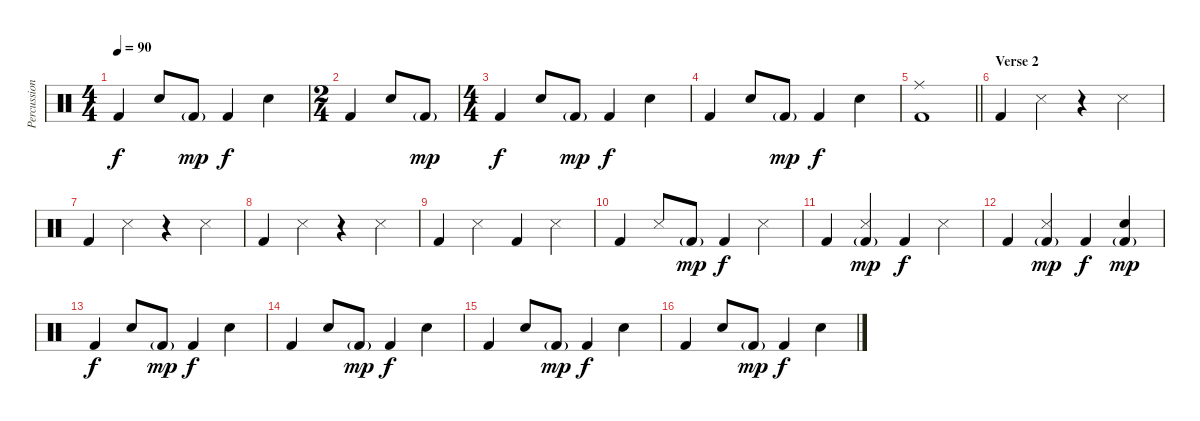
\track ("Percussion" "Percussion") {instrument percussion}
\staff {score}
\articulation defaults
\ts (4 4)
\tempo 90
\clef neutral
\ks c "Kick (hit) 2".4{dy f} "Snare (hit) 2".8 "Kick (hit) 2"{g}.8{dy mp} "Kick (hit) 2".4{dy f} "Snare (hit) 2".4
|
\ts (2 4)
"Kick (hit) 2".4 "Snare (hit) 2".8 "Kick (hit) 2"{g}.8{dy mp} |
\ts (4 4)
"Kick (hit) 2".4{dy f} "Snare (hit) 2".8 "Kick (hit) 2"{g}.8{dy mp} "Kick (hit) 2".4{dy f} "Snare (hit) 2".4 |
"Kick (hit) 2".4 "Snare (hit) 2".8 "Kick (hit) 2"{g}.8{dy mp} "Kick (hit) 2".4{dy f} "Snare (hit) 2".4 |
\barLineRight lightlight
("Ride (middle)" "Kick (hit) 2").1 |
\section ("" "Verse 2")
"Kick (hit) 2".4 "Snare (side stick) 3".4 r.4 "Snare (side stick) 3".4 |
"Kick (hit) 2".4 "Snare (side stick) 3".4 r.4 "Snare (side stick) 3".4 |
"Kick (hit) 2".4 "Snare (side stick) 3".4 r.4 "Snare (side stick) 3".4 |
"Kick (hit) 2".4 "Snare (side stick) 3".4 "Kick (hit) 2".4 "Snare (side stick) 3".4 |
"Kick (hit) 2".4 "Snare (side stick) 3".8 "Kick (hit) 2"{g}.8{dy mp} "Kick (hit) 2".4{dy f} "Snare (side stick) 3".4 |
"Kick (hit) 2".4 ("Snare (side stick) 3" "Kick (hit) 2"{g}).4{dy mp} "Kick (hit) 2".4{dy f} "Snare (side stick) 3".4 |
"Kick (hit) 2".4 ("Snare (side stick) 3" "Kick (hit) 2"{g}).4{dy mp} "Kick (hit) 2".4{dy f} ("Snare (hit) 2" "Kick (hit) 2"{g}).4{dy mp} |
"Kick (hit) 2".4{dy f} "Snare (hit) 2".8 "Kick (hit) 2"{g}.8{dy mp} "Kick (hit) 2".4{dy f} "Snare (hit) 2".4 |
"Kick (hit) 2".4 "Snare (hit) 2".8 "Kick (hit) 2"{g}.8{dy mp} "Kick (hit) 2".4{dy f} "Snare (hit) 2".4 |
"Kick (hit) 2".4 "Snare (hit) 2".8 "Kick (hit) 2"{g}.8{dy mp} "Kick (hit) 2".4{dy f} "Snare (hit) 2".4 |
"Kick (hit) 2".4 "Snare (hit) 2".8 "Kick (hit) 2"{g}.8{dy mp} "Kick (hit) 2".4{dy f} "Snare (hit) 2".4
